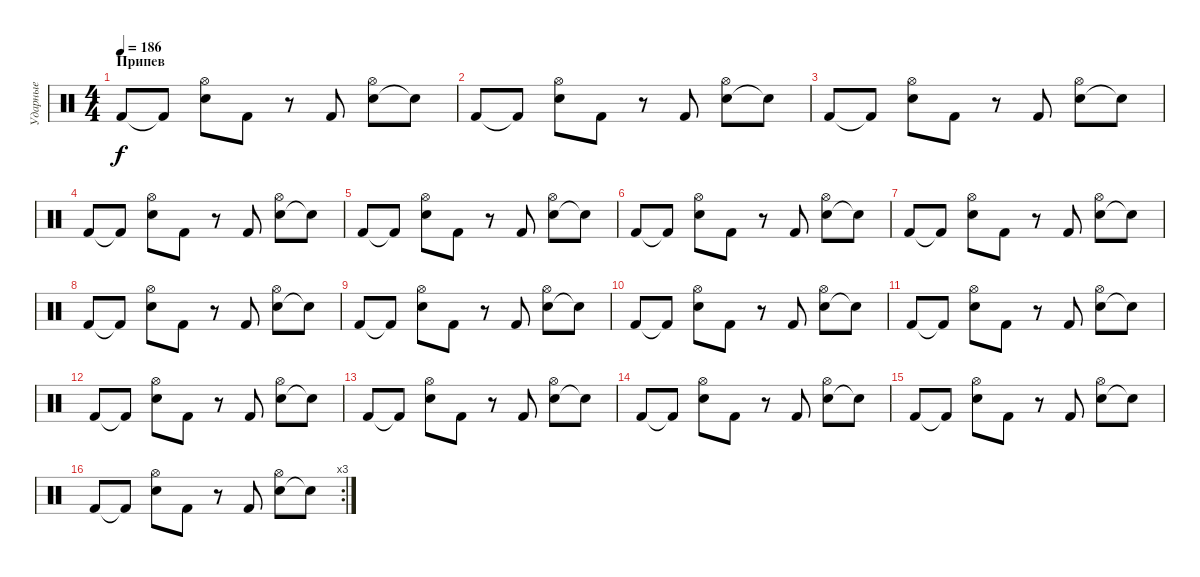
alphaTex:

\track ("Ударные" "Ударные") {instrument percussion}
\staff {score}
\articulation defaults
\ts (4 4)
\section ("" "Припев")
\tempo 186
\clef neutral
\ks aminor "Kick (hit) 2".8{dy f} "Kick (hit) 2"{t}.8
("Snare (hit) 2" "Hi-Hat (open)").8 "Kick (hit) 2".8 r.8 "Kick (hit) 2".8 ("Snare (hit) 2" "Hi-Hat (open)").8 "Snare (hit)"{t}.8 |
"Kick (hit) 2".8 "Kick (hit) 2"{t}.8 ("Snare (hit) 2" "Hi-Hat (open)").8 "Kick (hit) 2".8 r.8 "Kick (hit) 2".8 ("Snare (hit) 2" "Hi-Hat (open)").8 "Snare (hit)"{t}.8 |
"Kick (hit) 2".8 "Kick (hit) 2"{t}.8 ("Snare (hit) 2" "Hi-Hat (open)").8 "Kick (hit) 2".8 r.8 "Kick (hit) 2".8 ("Snare (hit) 2" "Hi-Hat (open)").8 "Snare (hit)"{t}.8 |
"Kick (hit) 2".8 "Kick (hit) 2"{t}.8 ("Snare (hit) 2" "Hi-Hat (open)").8 "Kick (hit) 2".8 r.8 "Kick (hit) 2".8 ("Snare (hit) 2" "Hi-Hat (open)").8 "Snare (hit)"{t}.8 |
"Kick (hit) 2".8 "Kick (hit) 2"{t}.8 ("Snare (hit) 2" "Hi-Hat (open)").8 "Kick (hit) 2".8 r.8 "Kick (hit) 2".8 ("Snare (hit) 2" "Hi-Hat (open)").8 "Snare (hit)"{t}.8 |
"Kick (hit) 2".8 "Kick (hit) 2"{t}.8 ("Snare (hit) 2" "Hi-Hat (open)").8 "Kick (hit) 2".8 r.8 "Kick (hit) 2".8 ("Snare (hit) 2" "Hi-Hat (open)").8 "Snare (hit)"{t}.8 |
"Kick (hit) 2".8 "Kick (hit) 2"{t}.8 ("Snare (hit) 2" "Hi-Hat (open)").8 "Kick (hit) 2".8 r.8 "Kick (hit) 2".8 ("Snare (hit) 2" "Hi-Hat (open)").8 "Snare (hit)"{t}.8 |
"Kick (hit) 2".8 "Kick (hit) 2"{t}.8 ("Snare (hit) 2" "Hi-Hat (open)").8 "Kick (hit) 2".8 r.8 "Kick (hit) 2".8 ("Snare (hit) 2" "Hi-Hat (open)").8 "Snare (hit)"{t}.8 |
"Kick (hit) 2".8 "Kick (hit) 2"{t}.8 ("Snare (hit) 2" "Hi-Hat (open)").8 "Kick (hit) 2".8 r.8 "Kick (hit) 2".8 ("Snare (hit) 2" "Hi-Hat (open)").8 "Snare (hit)"{t}.8 |
"Kick (hit) 2".8 "Kick (hit) 2"{t}.8 ("Snare (hit) 2" "Hi-Hat (open)").8 "Kick (hit) 2".8 r.8 "Kick (hit) 2".8 ("Snare (hit) 2" "Hi-Hat (open)").8 "Snare (hit)"{t}.8 |
"Kick (hit) 2".8 "Kick (hit) 2"{t}.8 ("Snare (hit) 2" "Hi-Hat (open)").8 "Kick (hit) 2".8 r.8 "Kick (hit) 2".8 ("Snare (hit) 2" "Hi-Hat (open)").8 "Snare (hit)"{t}.8 |
"Kick (hit) 2".8 "Kick (hit) 2"{t}.8 ("Snare (hit) 2" "Hi-Hat (open)").8 "Kick (hit) 2".8 r.8 "Kick (hit) 2".8 ("Snare (hit) 2" "Hi-Hat (open)").8 "Snare (hit)"{t}.8 |
"Kick (hit) 2".8 "Kick (hit) 2"{t}.8 ("Snare (hit) 2" "Hi-Hat (open)").8 "Kick (hit) 2".8 r.8 "Kick (hit) 2".8 ("Snare (hit) 2" "Hi-Hat (open)").8 "Snare (hit)"{t}.8 |
"Kick (hit) 2".8 "Kick (hit) 2"{t}.8 ("Snare (hit) 2" "Hi-Hat (open)").8 "Kick (hit) 2".8 r.8 "Kick (hit) 2".8 ("Snare (hit) 2" "Hi-Hat (open)").8 "Snare (hit)"{t}.8 |
"Kick (hit) 2".8 "Kick (hit) 2"{t}.8 ("Snare (hit) 2" "Hi-Hat (open)").8 "Kick (hit) 2".8 r.8 "Kick (hit) 2".8 ("Snare (hit) 2" "Hi-Hat (open)").8 "Snare (hit)"{t}.8 |
\rc 3 "Kick (hit) 2".8 "Kick (hit) 2"{t}.8
("Snare (hit) 2" "Hi-Hat (open)").8 "Kick (hit) 2".8 r.8 "Kick (hit) 2".8 ("Snare (hit) 2" "Hi-Hat (open)").8 "Snare (hit)"{t}.8
